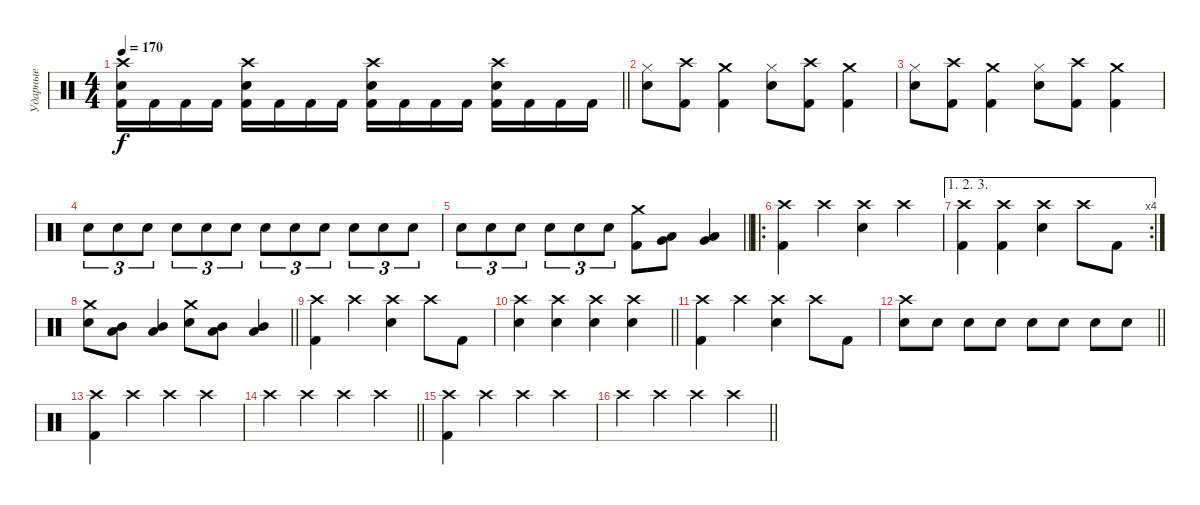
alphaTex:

\track ("Ударные" "Ударные") {instrument percussion}
\staff {score}
\articulation defaults
\ts (4 4)
\tempo 170
\clef neutral
\barLineRight lightlight
\ks c
("Crash high (hit)" "Snare (hit) 2" "Kick (hit) 2").16{dy f} "Kick (hit) 2".16 "Kick (hit) 2".16 "Kick (hit) 2".16 ("Crash high (hit)" "Snare (hit) 2" "Kick (hit) 2").16 "Kick (hit) 2".16 "Kick (hit) 2".16 "Kick (hit) 2".16 ("Crash high (hit)" "Snare (hit) 2" "Kick (hit) 2").16 "Kick (hit) 2".16 "Kick (hit) 2".16 "Kick (hit) 2".16 ("Crash high (hit)" "Snare (hit) 2" "Kick (hit) 2").16 "Kick (hit) 2".16 "Kick (hit) 2".16 "Kick (hit) 2".16 |
("Hi-Hat (closed)" "Snare (hit) 2").8 ("Crash high (hit)" "Kick (hit) 2").8 ("Crash medium (hit)" "Kick (hit) 2").4 ("Hi-Hat (closed)" "Snare (hit) 2").8 ("Crash high (hit)" "Kick (hit) 2").8 ("Crash medium (hit)" "Kick (hit) 2").4 |
("Hi-Hat (closed)" "Snare (hit) 2").8 ("Crash high (hit)" "Kick (hit) 2").8 ("Crash medium (hit)" "Kick (hit) 2").4 ("Hi-Hat (closed)" "Snare (hit) 2").8 ("Crash high (hit)" "Kick (hit) 2").8 ("Crash medium (hit)" "Kick (hit) 2").4 |
"Snare (hit) 2".8{tu (3 2)} "Snare (hit) 2".8{tu (3 2)} "Snare (hit) 2".8{tu (3 2)} "Snare (hit) 2".8{tu (3 2)} "Snare (hit) 2".8{tu (3 2)} "Snare (hit) 2".8{tu (3 2)} "Snare (hit) 2".8{tu (3 2)} "Snare (hit) 2".8{tu (3 2)} "Snare (hit) 2".8{tu (3 2)} "Snare (hit) 2".8{tu (3 2)} "Snare (hit) 2".8{tu (3 2)} "Snare (hit) 2".8{tu (3 2)} |
\barLineRight lightlight "Snare (hit) 2".8{tu (3 2)} "Snare (hit) 2".8{tu (3 2)} "Snare (hit) 2".8{tu (3 2)} "Snare (hit) 2".8{tu (3 2)} "Snare (hit) 2".8{tu (3 2)} "Snare (hit) 2".8{tu (3 2)}
("Crash medium (hit)" "Kick (hit) 2").8 ("Low Tom (hit)" "Very Low Tom (hit)").8 ("Low Tom (hit)" "Very Low Tom (hit)").4 |
\ro
("Crash high (hit)" "Kick (hit) 2").4 "Crash high (hit)".4 ("Crash high (hit)" "Snare (hit) 2").4 "Crash high (hit)".4 |
\ae (1 2 3)
\rc 4
("Crash high (hit)" "Kick (hit) 2").4 ("Crash high (hit)" "Kick (hit) 2").4 ("Crash high (hit)" "Snare (hit) 2").4 "Crash high (hit)".8 "Kick (hit) 2".8 |
\barLineRight lightlight
("Crash medium (hit)" "Snare (hit) 2").8 ("Mid Tom (hit)" "Low Floor Tom (hit)").8 ("Mid Tom (hit)" "Low Floor Tom (hit)").4 ("Crash medium (hit)" "Snare (hit) 2").8 ("Mid Tom (hit)" "Low Floor Tom (hit)").8 ("Mid Tom (hit)" "Low Floor Tom (hit)").4 |
("Crash high (hit)" "Kick (hit) 2").4 "Crash high (hit)".4 ("Crash high (hit)" "Snare (hit) 2").4 "Crash high (hit)".8 "Kick (hit) 2".8 |
\barLineRight lightlight
("Crash high (hit)" "Snare (hit) 2").4 ("Crash high (hit)" "Snare (hit) 2").4 ("Crash high (hit)" "Snare (hit) 2").4 ("Crash high (hit)" "Snare (hit) 2").4 |
("Crash high (hit)" "Kick (hit) 2").4 "Crash high (hit)".4 ("Crash high (hit)" "Snare (hit) 2").4 "Crash high (hit)".8 "Kick (hit) 2".8 |
\barLineRight lightlight
("Crash high (hit)" "Snare (hit) 2").8 "Snare (hit) 2".8 "Snare (hit) 2".8 "Snare (hit) 2".8 "Snare (hit) 2".8 "Snare (hit) 2".8 "Snare (hit) 2".8 "Snare (hit) 2".8 |
("Crash high (hit)" "Kick (hit) 2").4 "Crash high (hit)".4 "Crash high (hit)".4 "Crash high (hit)".4 |
\barLineRight lightlight "Crash high (hit)".4 "Crash high (hit)".4 "Crash high (hit)".4 "Crash high (hit)".4
|
("Crash high (hit)" "Kick (hit) 2").4 "Crash high (hit)".4 "Crash high (hit)".4 "Crash high (hit)".4 |
\barLineRight lightlight "Crash high (hit)".4 "Crash high (hit)".4 "Crash high (hit)".4 "Crash high (hit)".4
